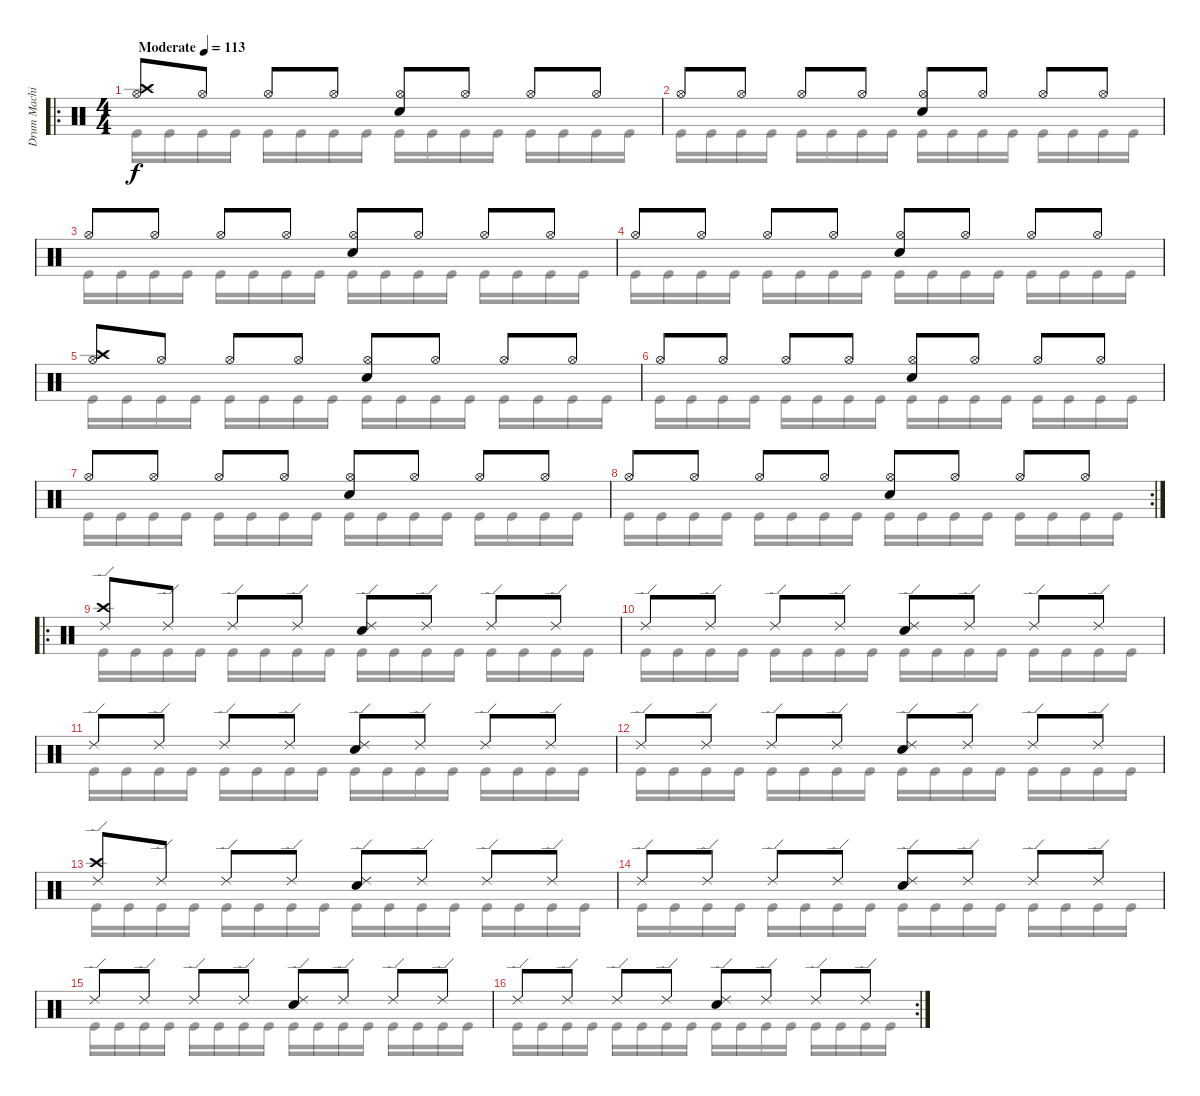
\track ("Drum Machine" "Drum Machi") {instrument percussion}
\staff {score}
\articulation defaults
\voice
\ro
\ts (4 4)
\tempo (113 "Moderate")
\clef neutral
\ks c
("Hi-Hat (open)" "Crash high (hit)").8{dy f} "Hi-Hat (open)".8 "Hi-Hat (open)".8 "Hi-Hat (open)".8 ("Hi-Hat (open)" "Snare (hit) 2").8 "Hi-Hat (open)".8 "Hi-Hat (open)".8 "Hi-Hat (open)".8 |
"Hi-Hat (open)".8 "Hi-Hat (open)".8 "Hi-Hat (open)".8 "Hi-Hat (open)".8 ("Hi-Hat (open)" "Snare (hit) 2").8 "Hi-Hat (open)".8 "Hi-Hat (open)".8 "Hi-Hat (open)".8 |
"Hi-Hat (open)".8 "Hi-Hat (open)".8 "Hi-Hat (open)".8 "Hi-Hat (open)".8 ("Hi-Hat (open)" "Snare (hit) 2").8 "Hi-Hat (open)".8 "Hi-Hat (open)".8 "Hi-Hat (open)".8 |
"Hi-Hat (open)".8 "Hi-Hat (open)".8 "Hi-Hat (open)".8 "Hi-Hat (open)".8 ("Hi-Hat (open)" "Snare (hit) 2").8 "Hi-Hat (open)".8 "Hi-Hat (open)".8 "Hi-Hat (open)".8 |
("Hi-Hat (open)" "Crash high (hit)").8 "Hi-Hat (open)".8 "Hi-Hat (open)".8 "Hi-Hat (open)".8 ("Hi-Hat (open)" "Snare (hit) 2").8 "Hi-Hat (open)".8 "Hi-Hat (open)".8 "Hi-Hat (open)".8 |
"Hi-Hat (open)".8 "Hi-Hat (open)".8 "Hi-Hat (open)".8 "Hi-Hat (open)".8 ("Hi-Hat (open)" "Snare (hit) 2").8 "Hi-Hat (open)".8 "Hi-Hat (open)".8 "Hi-Hat (open)".8 |
"Hi-Hat (open)".8 "Hi-Hat (open)".8 "Hi-Hat (open)".8 "Hi-Hat (open)".8 ("Hi-Hat (open)" "Snare (hit) 2").8 "Hi-Hat (open)".8 "Hi-Hat (open)".8 "Hi-Hat (open)".8 |
\rc 2 "Hi-Hat (open)".8 "Hi-Hat (open)".8 "Hi-Hat (open)".8 "Hi-Hat (open)".8
("Hi-Hat (open)" "Snare (hit) 2").8 "Hi-Hat (open)".8 "Hi-Hat (open)".8 "Hi-Hat (open)".8 |
\ro
("Ride (edge) 2" "Crash high (hit)").8 "Ride (edge) 2".8 "Ride (edge) 2".8 "Ride (edge) 2".8 ("Ride (edge) 2" "Snare (hit) 2").8 "Ride (edge) 2".8 "Ride (edge) 2".8 "Ride (edge) 2".8 |
"Ride (edge) 2".8 "Ride (edge) 2".8 "Ride (edge) 2".8 "Ride (edge) 2".8 ("Ride (edge) 2" "Snare (hit) 2").8 "Ride (edge) 2".8 "Ride (edge) 2".8 "Ride (edge) 2".8 |
"Ride (edge) 2".8 "Ride (edge) 2".8 "Ride (edge) 2".8 "Ride (edge) 2".8 ("Ride (edge) 2" "Snare (hit) 2").8 "Ride (edge) 2".8 "Ride (edge) 2".8 "Ride (edge) 2".8 |
"Ride (edge) 2".8 "Ride (edge) 2".8 "Ride (edge) 2".8 "Ride (edge) 2".8 ("Ride (edge) 2" "Snare (hit) 2").8 "Ride (edge) 2".8 "Ride (edge) 2".8 "Ride (edge) 2".8 |
("Ride (edge) 2" "Crash high (hit)").8 "Ride (edge) 2".8 "Ride (edge) 2".8 "Ride (edge) 2".8 ("Ride (edge) 2" "Snare (hit) 2").8 "Ride (edge) 2".8 "Ride (edge) 2".8 "Ride (edge) 2".8 |
"Ride (edge) 2".8 "Ride (edge) 2".8 "Ride (edge) 2".8 "Ride (edge) 2".8 ("Ride (edge) 2" "Snare (hit) 2").8 "Ride (edge) 2".8 "Ride (edge) 2".8 "Ride (edge) 2".8 |
"Ride (edge) 2".8 "Ride (edge) 2".8 "Ride (edge) 2".8 "Ride (edge) 2".8 ("Ride (edge) 2" "Snare (hit) 2").8 "Ride (edge) 2".8 "Ride (edge) 2".8 "Ride (edge) 2".8 |
\rc 2 "Ride (edge) 2".8 "Ride (edge) 2".8 "Ride (edge) 2".8 "Ride (edge) 2".8
("Ride (edge) 2" "Snare (hit) 2").8 "Ride (edge) 2".8 "Ride (edge) 2".8 "Ride (edge) 2".8
\voice
\clef neutral
\ottava regular
\simile none
\ks c "Kick (hit)".16{dy f} "Kick (hit)".16 "Kick (hit)".16 "Kick (hit)".16 "Kick (hit)".16 "Kick (hit)".16 "Kick (hit)".16 "Kick (hit)".16 "Kick (hit)".16 "Kick (hit)".16 "Kick (hit)".16 "Kick (hit)".16 "Kick (hit)".16 "Kick (hit)".16 "Kick (hit)".16 "Kick (hit)".16
|
"Kick (hit)".16 "Kick (hit)".16 "Kick (hit)".16 "Kick (hit)".16 "Kick (hit)".16 "Kick (hit)".16 "Kick (hit)".16 "Kick (hit)".16 "Kick (hit)".16 "Kick (hit)".16 "Kick (hit)".16 "Kick (hit)".16 "Kick (hit)".16 "Kick (hit)".16 "Kick (hit)".16 "Kick (hit)".16 |
"Kick (hit)".16 "Kick (hit)".16 "Kick (hit)".16 "Kick (hit)".16 "Kick (hit)".16 "Kick (hit)".16 "Kick (hit)".16 "Kick (hit)".16 "Kick (hit)".16 "Kick (hit)".16 "Kick (hit)".16 "Kick (hit)".16 "Kick (hit)".16 "Kick (hit)".16 "Kick (hit)".16 "Kick (hit)".16 |
"Kick (hit)".16 "Kick (hit)".16 "Kick (hit)".16 "Kick (hit)".16 "Kick (hit)".16 "Kick (hit)".16 "Kick (hit)".16 "Kick (hit)".16 "Kick (hit)".16 "Kick (hit)".16 "Kick (hit)".16 "Kick (hit)".16 "Kick (hit)".16 "Kick (hit)".16 "Kick (hit)".16 "Kick (hit)".16 |
"Kick (hit)".16 "Kick (hit)".16 "Kick (hit)".16 "Kick (hit)".16 "Kick (hit)".16 "Kick (hit)".16 "Kick (hit)".16 "Kick (hit)".16 "Kick (hit)".16 "Kick (hit)".16 "Kick (hit)".16 "Kick (hit)".16 "Kick (hit)".16 "Kick (hit)".16 "Kick (hit)".16 "Kick (hit)".16 |
"Kick (hit)".16 "Kick (hit)".16 "Kick (hit)".16 "Kick (hit)".16 "Kick (hit)".16 "Kick (hit)".16 "Kick (hit)".16 "Kick (hit)".16 "Kick (hit)".16 "Kick (hit)".16 "Kick (hit)".16 "Kick (hit)".16 "Kick (hit)".16 "Kick (hit)".16 "Kick (hit)".16 "Kick (hit)".16 |
"Kick (hit)".16 "Kick (hit)".16 "Kick (hit)".16 "Kick (hit)".16 "Kick (hit)".16 "Kick (hit)".16 "Kick (hit)".16 "Kick (hit)".16 "Kick (hit)".16 "Kick (hit)".16 "Kick (hit)".16 "Kick (hit)".16 "Kick (hit)".16 "Kick (hit)".16 "Kick (hit)".16 "Kick (hit)".16 |
"Kick (hit)".16 "Kick (hit)".16 "Kick (hit)".16 "Kick (hit)".16 "Kick (hit)".16 "Kick (hit)".16 "Kick (hit)".16 "Kick (hit)".16 "Kick (hit)".16 "Kick (hit)".16 "Kick (hit)".16 "Kick (hit)".16 "Kick (hit)".16 "Kick (hit)".16 "Kick (hit)".16 "Kick (hit)".16 |
"Kick (hit)".16 "Kick (hit)".16 "Kick (hit)".16 "Kick (hit)".16 "Kick (hit)".16 "Kick (hit)".16 "Kick (hit)".16 "Kick (hit)".16 "Kick (hit)".16 "Kick (hit)".16 "Kick (hit)".16 "Kick (hit)".16 "Kick (hit)".16 "Kick (hit)".16 "Kick (hit)".16 "Kick (hit)".16 |
"Kick (hit)".16 "Kick (hit)".16 "Kick (hit)".16 "Kick (hit)".16 "Kick (hit)".16 "Kick (hit)".16 "Kick (hit)".16 "Kick (hit)".16 "Kick (hit)".16 "Kick (hit)".16 "Kick (hit)".16 "Kick (hit)".16 "Kick (hit)".16 "Kick (hit)".16 "Kick (hit)".16 "Kick (hit)".16 |
"Kick (hit)".16 "Kick (hit)".16 "Kick (hit)".16 "Kick (hit)".16 "Kick (hit)".16 "Kick (hit)".16 "Kick (hit)".16 "Kick (hit)".16 "Kick (hit)".16 "Kick (hit)".16 "Kick (hit)".16 "Kick (hit)".16 "Kick (hit)".16 "Kick (hit)".16 "Kick (hit)".16 "Kick (hit)".16 |
"Kick (hit)".16 "Kick (hit)".16 "Kick (hit)".16 "Kick (hit)".16 "Kick (hit)".16 "Kick (hit)".16 "Kick (hit)".16 "Kick (hit)".16 "Kick (hit)".16 "Kick (hit)".16 "Kick (hit)".16 "Kick (hit)".16 "Kick (hit)".16 "Kick (hit)".16 "Kick (hit)".16 "Kick (hit)".16 |
"Kick (hit)".16 "Kick (hit)".16 "Kick (hit)".16 "Kick (hit)".16 "Kick (hit)".16 "Kick (hit)".16 "Kick (hit)".16 "Kick (hit)".16 "Kick (hit)".16 "Kick (hit)".16 "Kick (hit)".16 "Kick (hit)".16 "Kick (hit)".16 "Kick (hit)".16 "Kick (hit)".16 "Kick (hit)".16 |
"Kick (hit)".16 "Kick (hit)".16 "Kick (hit)".16 "Kick (hit)".16 "Kick (hit)".16 "Kick (hit)".16 "Kick (hit)".16 "Kick (hit)".16 "Kick (hit)".16 "Kick (hit)".16 "Kick (hit)".16 "Kick (hit)".16 "Kick (hit)".16 "Kick (hit)".16 "Kick (hit)".16 "Kick (hit)".16 |
"Kick (hit)".16 "Kick (hit)".16 "Kick (hit)".16 "Kick (hit)".16 "Kick (hit)".16 "Kick (hit)".16 "Kick (hit)".16 "Kick (hit)".16 "Kick (hit)".16 "Kick (hit)".16 "Kick (hit)".16 "Kick (hit)".16 "Kick (hit)".16 "Kick (hit)".16 "Kick (hit)".16 "Kick (hit)".16 |
"Kick (hit)".16 "Kick (hit)".16 "Kick (hit)".16 "Kick (hit)".16 "Kick (hit)".16 "Kick (hit)".16 "Kick (hit)".16 "Kick (hit)".16 "Kick (hit)".16 "Kick (hit)".16 "Kick (hit)".16 "Kick (hit)".16 "Kick (hit)".16 "Kick (hit)".16 "Kick (hit)".16 "Kick (hit)".16
